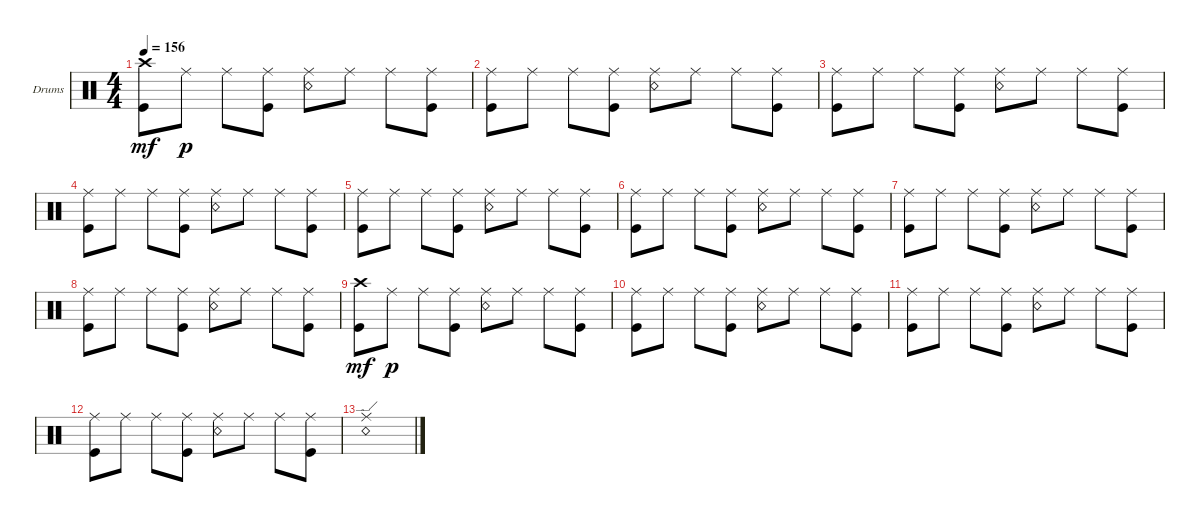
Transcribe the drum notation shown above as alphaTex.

\defaultSystemsLayout 4
\bracketExtendMode groupsimilarinstruments
\firstSystemTrackNameOrientation horizontal
\otherSystemsTrackNameOrientation horizontal
\track ("Drumkit" "Drums") {instrument percussion}
\staff {score}
\articulation defaults
\ts (4 4)
\tempo 156
\clef neutral
\ks c
("Kick (hit)" "Crash high (hit)").8{dy mf} "Ride (middle)".8{dy p} "Ride (middle)".8 ("Ride (middle)" "Kick (hit)").8 ("Ride (middle)" "Snare (rim shot)").8 "Ride (middle)".8 "Ride (middle)".8 ("Ride (middle)" "Kick (hit)").8 |
("Kick (hit)" "Ride (middle)").8 "Ride (middle)".8 "Ride (middle)".8 ("Ride (middle)" "Kick (hit)").8 ("Ride (middle)" "Snare (rim shot)").8 "Ride (middle)".8 "Ride (middle)".8 ("Ride (middle)" "Kick (hit)").8 |
("Kick (hit)" "Ride (middle)").8 "Ride (middle)".8 "Ride (middle)".8 ("Ride (middle)" "Kick (hit)").8 ("Ride (middle)" "Snare (rim shot)").8 "Ride (middle)".8 "Ride (middle)".8 ("Ride (middle)" "Kick (hit)").8 |
("Kick (hit)" "Ride (middle)").8 "Ride (middle)".8 "Ride (middle)".8 ("Ride (middle)" "Kick (hit)").8 ("Ride (middle)" "Snare (rim shot)").8 "Ride (middle)".8 "Ride (middle)".8 ("Ride (middle)" "Kick (hit)").8 |
("Kick (hit)" "Ride (middle)").8 "Ride (middle)".8 "Ride (middle)".8 ("Ride (middle)" "Kick (hit)").8 ("Ride (middle)" "Snare (rim shot)").8 "Ride (middle)".8 "Ride (middle)".8 ("Ride (middle)" "Kick (hit)").8 |
("Kick (hit)" "Ride (middle)").8 "Ride (middle)".8 "Ride (middle)".8 ("Ride (middle)" "Kick (hit)").8 ("Ride (middle)" "Snare (rim shot)").8 "Ride (middle)".8 "Ride (middle)".8 ("Ride (middle)" "Kick (hit)").8 |
("Kick (hit)" "Ride (middle)").8 "Ride (middle)".8 "Ride (middle)".8 ("Ride (middle)" "Kick (hit)").8 ("Ride (middle)" "Snare (rim shot)").8 "Ride (middle)".8 "Ride (middle)".8 ("Ride (middle)" "Kick (hit)").8 |
("Kick (hit)" "Ride (middle)").8 "Ride (middle)".8 "Ride (middle)".8 ("Ride (middle)" "Kick (hit)").8 ("Ride (middle)" "Snare (rim shot)").8 "Ride (middle)".8 "Ride (middle)".8 ("Ride (middle)" "Kick (hit)").8 |
("Kick (hit)" "Crash high (hit)").8{dy mf} "Ride (middle)".8{dy p} "Ride (middle)".8 ("Ride (middle)" "Kick (hit)").8 ("Ride (middle)" "Snare (rim shot)").8 "Ride (middle)".8 "Ride (middle)".8 ("Ride (middle)" "Kick (hit)").8 |
("Kick (hit)" "Ride (middle)").8 "Ride (middle)".8 "Ride (middle)".8 ("Ride (middle)" "Kick (hit)").8 ("Ride (middle)" "Snare (rim shot)").8 "Ride (middle)".8 "Ride (middle)".8 ("Ride (middle)" "Kick (hit)").8 |
("Kick (hit)" "Ride (middle)").8 "Ride (middle)".8 "Ride (middle)".8 ("Ride (middle)" "Kick (hit)").8 ("Ride (middle)" "Snare (rim shot)").8 "Ride (middle)".8 "Ride (middle)".8 ("Ride (middle)" "Kick (hit)").8 |
("Kick (hit)" "Ride (middle)").8 "Ride (middle)".8 "Ride (middle)".8 ("Ride (middle)" "Kick (hit)").8 ("Ride (middle)" "Snare (rim shot)").8 "Ride (middle)".8 "Ride (middle)".8 ("Ride (middle)" "Kick (hit)").8 |
("Ride (edge)" "Snare (rim shot)").1
